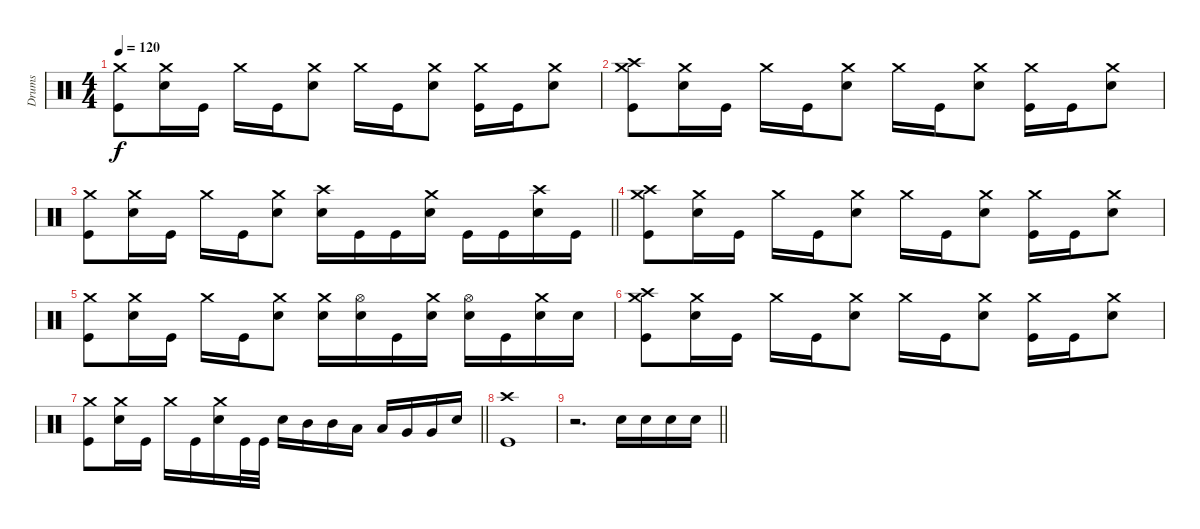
\track ("Drums" "Drums") {instrument percussion}
\staff
\articulation defaults
\ts (4 4)
\tempo 120
\clef neutral
\ks c
("Crash medium (hit)" "Kick (hit)").8{dy f} ("Crash medium (hit)" "Electric Snare (hit)").16 "Kick (hit)".16 "Crash medium (hit)".16 "Kick (hit)".16 ("Crash medium (hit)" "Electric Snare (hit)").8 "Crash medium (hit)".16 "Kick (hit)".16 ("Crash medium (hit)" "Electric Snare (hit)").8 ("Crash medium (hit)" "Kick (hit)").16 "Kick (hit)".16 ("Crash medium (hit)" "Electric Snare (hit)").8 |
("Crash high (hit)" "Crash medium (hit)" "Kick (hit)").8 ("Crash medium (hit)" "Electric Snare (hit)").16 "Kick (hit)".16 "Crash medium (hit)".16 "Kick (hit)".16 ("Crash medium (hit)" "Electric Snare (hit)").8 "Crash medium (hit)".16 "Kick (hit)".16 ("Crash medium (hit)" "Electric Snare (hit)").8 ("Crash medium (hit)" "Kick (hit)").16 "Kick (hit)".16 ("Crash medium (hit)" "Electric Snare (hit)").8 |
\barLineRight lightlight
("Crash medium (hit)" "Kick (hit)").8 ("Crash medium (hit)" "Electric Snare (hit)").16 "Kick (hit)".16 "Crash medium (hit)".16 "Kick (hit)".16 ("Crash medium (hit)" "Electric Snare (hit)").8 ("Crash high (hit)" "Electric Snare (hit)").16 "Kick (hit)".16 "Kick (hit)".16 ("Crash medium (hit)" "Electric Snare (hit)").16 "Kick (hit)".16 "Kick (hit)".16 ("Crash high (hit)" "Electric Snare (hit)").16 "Kick (hit)".16 |
("Crash high (hit)" "Crash medium (hit)" "Kick (hit)").8 ("Crash medium (hit)" "Electric Snare (hit)").16 "Kick (hit)".16 "Crash medium (hit)".16 "Kick (hit)".16 ("Crash medium (hit)" "Electric Snare (hit)").8 "Crash medium (hit)".16 "Kick (hit)".16 ("Crash medium (hit)" "Electric Snare (hit)").8 ("Crash medium (hit)" "Kick (hit)").16 "Kick (hit)".16 ("Crash medium (hit)" "Electric Snare (hit)").8 |
("Crash medium (hit)" "Kick (hit)").8 ("Crash medium (hit)" "Electric Snare (hit)").16 "Kick (hit)".16 "Crash medium (hit)".16 "Kick (hit)".16 ("Crash medium (hit)" "Electric Snare (hit)").8 ("Crash medium (hit)" "Electric Snare (hit)").16 ("Hi-Hat (open)" "Electric Snare (hit)").16 "Kick (hit)".16 ("Crash medium (hit)" "Electric Snare (hit)").16 ("Hi-Hat (open)" "Electric Snare (hit)").16 "Kick (hit)".16 ("Crash medium (hit)" "Electric Snare (hit)").16 "Electric Snare (hit)".16 |
("Crash high (hit)" "Crash medium (hit)" "Kick (hit)").8 ("Crash medium (hit)" "Electric Snare (hit)").16 "Kick (hit)".16 "Crash medium (hit)".16 "Kick (hit)".16 ("Crash medium (hit)" "Electric Snare (hit)").8 "Crash medium (hit)".16 "Kick (hit)".16 ("Crash medium (hit)" "Electric Snare (hit)").8 ("Crash medium (hit)" "Kick (hit)").16 "Kick (hit)".16 ("Crash medium (hit)" "Electric Snare (hit)").8 |
\barLineRight lightlight
("Crash medium (hit)" "Kick (hit)").8 ("Crash medium (hit)" "Electric Snare (hit)").16 "Kick (hit)".16 "Crash medium (hit)".16 "Kick (hit)".16 ("Crash medium (hit)" "Electric Snare (hit)").16 "Kick (hit)".32 "Kick (hit)".32 "Electric Snare (hit)".16 "Mid Tom (hit)".16 "Mid Tom (hit)".16 "Low Tom (hit)".16 "Low Tom (hit)".16 "Very Low Tom (hit)".16 "Very Low Tom (hit)".16 "Electric Snare (hit)".16 |
("Crash high (hit)" "Kick (hit)").1 |
\barLineRight lightlight
r.2{d} "Electric Snare (hit)".16 "Electric Snare (hit)".16 "Electric Snare (hit)".16 "Electric Snare (hit)".16
